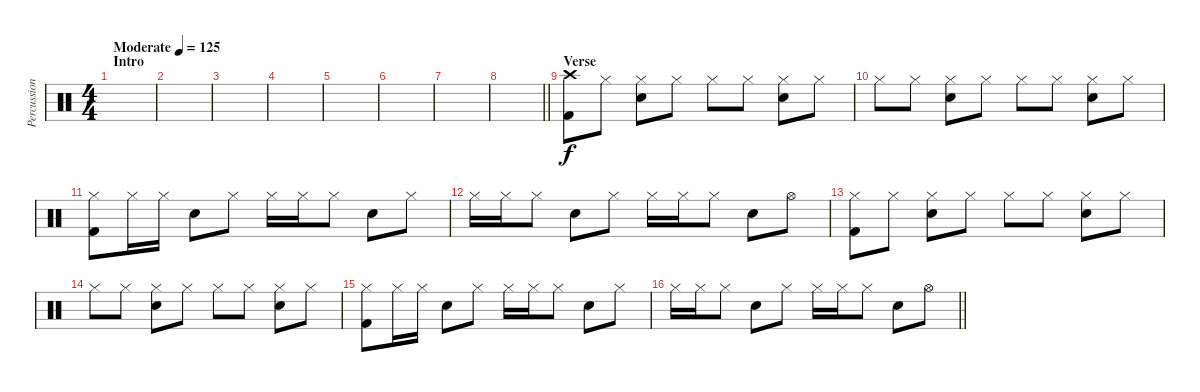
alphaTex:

\track ("Percussion" "Percussion") {instrument percussion}
\staff {score}
\articulation defaults
\ts (4 4)
\section ("" "Intro")
\tempo (125 "Moderate")
\clef neutral
\ks c
|
|
|
|
|
|
|
\barLineRight lightlight
|
\section ("" "Verse")
("Crash high (hit)" "Kick (hit) 2").8 "Hi-Hat (closed)".8 ("Hi-Hat (closed)" "Electric Snare (hit)").8 "Hi-Hat (closed)".8 "Hi-Hat (closed)".8 "Hi-Hat (closed)".8 ("Hi-Hat (closed)" "Electric Snare (hit)").8 "Hi-Hat (closed)".8 |
"Hi-Hat (closed)".8 "Hi-Hat (closed)".8 ("Hi-Hat (closed)" "Electric Snare (hit)").8 "Hi-Hat (closed)".8 "Hi-Hat (closed)".8 "Hi-Hat (closed)".8 ("Hi-Hat (closed)" "Electric Snare (hit)").8 "Hi-Hat (closed)".8 |
("Hi-Hat (closed)" "Kick (hit) 2").8 "Hi-Hat (closed)".16 "Hi-Hat (closed)".16 "Electric Snare (hit)".8 "Hi-Hat (closed)".8 "Hi-Hat (closed)".16 "Hi-Hat (closed)".16 "Hi-Hat (closed)".8 "Electric Snare (hit)".8 "Hi-Hat (closed)".8 |
"Hi-Hat (closed)".16 "Hi-Hat (closed)".16 "Hi-Hat (closed)".8 "Electric Snare (hit)".8 "Hi-Hat (closed)".8 "Hi-Hat (closed)".16 "Hi-Hat (closed)".16 "Hi-Hat (closed)".8 "Electric Snare (hit)".8 "Hi-Hat (open)".8 |
("Hi-Hat (closed)" "Kick (hit) 2").8 "Hi-Hat (closed)".8 ("Hi-Hat (closed)" "Electric Snare (hit)").8 "Hi-Hat (closed)".8 "Hi-Hat (closed)".8 "Hi-Hat (closed)".8 ("Hi-Hat (closed)" "Electric Snare (hit)").8 "Hi-Hat (closed)".8 |
"Hi-Hat (closed)".8 "Hi-Hat (closed)".8 ("Hi-Hat (closed)" "Electric Snare (hit)").8 "Hi-Hat (closed)".8 "Hi-Hat (closed)".8 "Hi-Hat (closed)".8 ("Hi-Hat (closed)" "Electric Snare (hit)").8 "Hi-Hat (closed)".8 |
("Hi-Hat (closed)" "Kick (hit) 2").8 "Hi-Hat (closed)".16 "Hi-Hat (closed)".16 "Electric Snare (hit)".8 "Hi-Hat (closed)".8 "Hi-Hat (closed)".16 "Hi-Hat (closed)".16 "Hi-Hat (closed)".8 "Electric Snare (hit)".8 "Hi-Hat (closed)".8 |
\barLineRight lightlight "Hi-Hat (closed)".16 "Hi-Hat (closed)".16 "Hi-Hat (closed)".8 "Electric Snare (hit)".8 "Hi-Hat (closed)".8 "Hi-Hat (closed)".16 "Hi-Hat (closed)".16 "Hi-Hat (closed)".8 "Electric Snare (hit)".8 "Hi-Hat (open)".8
